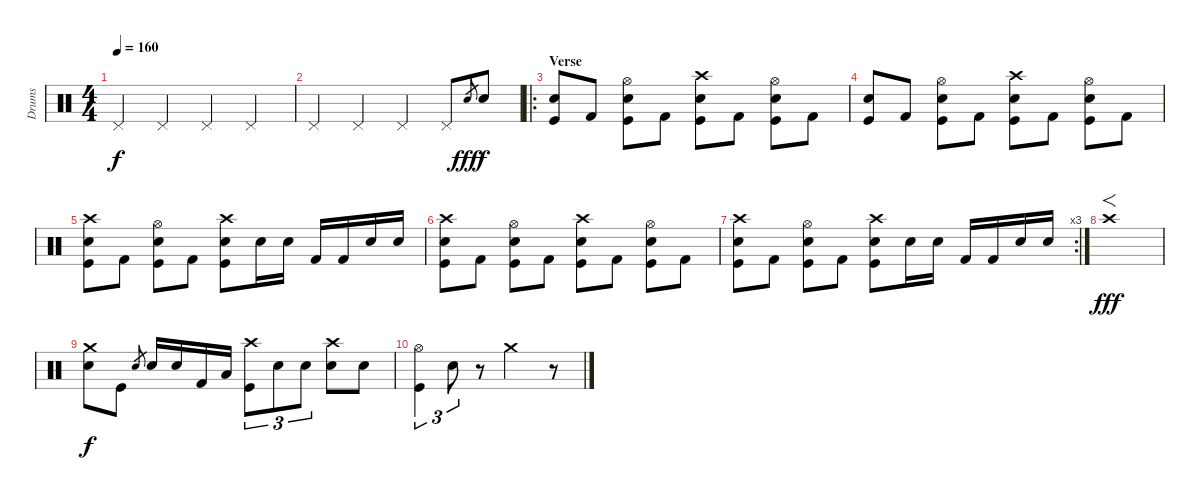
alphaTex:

\track ("Drums" "Drums") {instrument percussion}
\staff {score}
\articulation defaults
\ts (4 4)
\tempo 160
\clef neutral
\ks c "Pedal Hi-Hat (hit)".4{dy f} "Pedal Hi-Hat (hit)".4 "Pedal Hi-Hat (hit)".4 "Pedal Hi-Hat (hit)".4
|
"Pedal Hi-Hat (hit)".4 "Pedal Hi-Hat (hit)".4 "Pedal Hi-Hat (hit)".4 "Pedal Hi-Hat (hit)".8 "Snare (hit) 2"{h}.8{gr dy fff} "Electric Snare (hit)".8{dy f} |
\ro
\section ("" "Verse")
("Electric Snare (hit)" "Kick (hit)").8 "Kick (hit) 2".8 ("Hi-Hat (open)" "Snare (hit) 2" "Kick (hit)").8 "Kick (hit) 2".8 ("Crash high (hit)" "Electric Snare (hit)" "Kick (hit)").8 "Kick (hit) 2".8 ("Hi-Hat (open)" "Snare (hit) 2" "Kick (hit)").8 "Kick (hit) 2".8 |
("Electric Snare (hit)" "Kick (hit)").8 "Kick (hit) 2".8 ("Hi-Hat (open)" "Snare (hit) 2" "Kick (hit)").8 "Kick (hit) 2".8 ("Crash high (hit)" "Electric Snare (hit)" "Kick (hit)").8 "Kick (hit) 2".8 ("Hi-Hat (open)" "Snare (hit) 2" "Kick (hit)").8 "Kick (hit) 2".8 |
("Crash high (hit)" "Electric Snare (hit)" "Kick (hit)").8 "Kick (hit) 2".8 ("Hi-Hat (open)" "Snare (hit) 2" "Kick (hit)").8 "Kick (hit) 2".8 ("Crash high (hit)" "Electric Snare (hit)" "Kick (hit)").8 "Snare (hit) 2".16 "Snare (hit) 2".16 "Kick (hit) 2".16 "Kick (hit) 2".16 "Electric Snare (hit)".16 "Electric Snare (hit)".16 |
("Crash high (hit)" "Electric Snare (hit)" "Kick (hit)").8 "Kick (hit) 2".8 ("Hi-Hat (open)" "Snare (hit) 2" "Kick (hit)").8 "Kick (hit) 2".8 ("Crash high (hit)" "Electric Snare (hit)" "Kick (hit)").8 "Kick (hit) 2".8 ("Hi-Hat (open)" "Snare (hit) 2" "Kick (hit)").8 "Kick (hit) 2".8 |
\rc 3
("Crash high (hit)" "Electric Snare (hit)" "Kick (hit)").8 "Kick (hit) 2".8 ("Hi-Hat (open)" "Snare (hit) 2" "Kick (hit)").8 "Kick (hit) 2".8 ("Crash high (hit)" "Electric Snare (hit)" "Kick (hit)").8 "Snare (hit) 2".16 "Snare (hit) 2".16 "Kick (hit) 2".16 "Kick (hit) 2".16 "Electric Snare (hit)".16 "Electric Snare (hit)".16 |
"Crash high (hit)"{tr (57 16)}.1{f dy fff} |
("Crash medium (hit)" "Snare (hit) 2").8{dy f} "Kick (hit)".8 "Snare (hit) 2".8{gr} "Electric Snare (hit)".16 "Snare (hit) 2".16 "Kick (hit) 2".16 "Low Tom (hit)".16 ("Crash high (hit)" "Kick (hit)").8{tu (3 2)} "Snare (hit) 2".8{tu (3 2)} "Electric Snare (hit)".8{tu (3 2)} ("Crash high (hit)" "Snare (hit) 2").8 "Snare (hit) 2".8 |
("Hi-Hat (open)" "Kick (hit)").4{tu (3 2)} "Snare (hit) 2".8{tu (3 2)} r.8 "Crash medium (hit)".2 r.8
